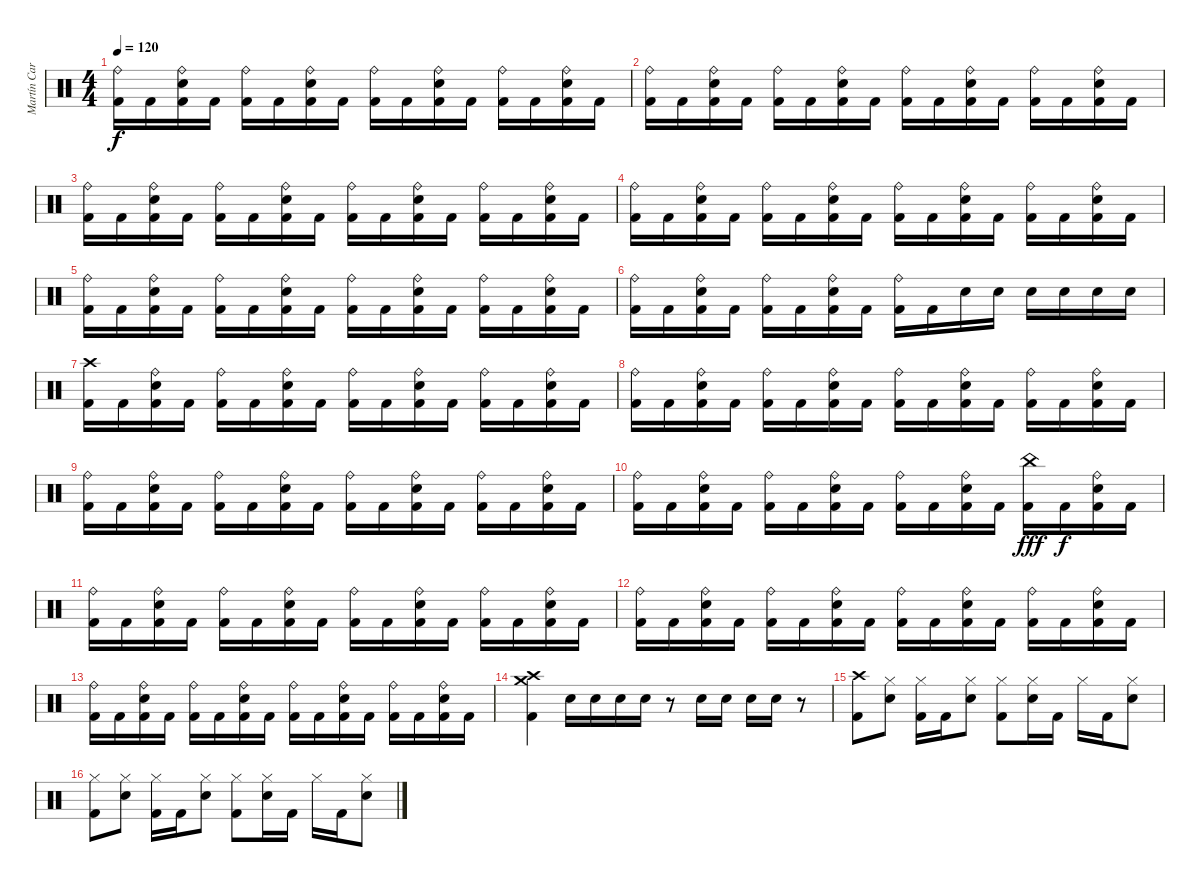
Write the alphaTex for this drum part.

\track ("Martín Carrizo" "Martín Car") {instrument percussion}
\staff {score}
\articulation defaults
\ts (4 4)
\tempo 120
\clef neutral
\ks c
("Ride (bell)" "Kick (hit) 2").16{dy f} "Kick (hit) 2".16 ("Ride (bell)" "Snare (hit) 2" "Kick (hit) 2").16 "Kick (hit) 2".16 ("Ride (bell)" "Kick (hit) 2").16 "Kick (hit) 2".16 ("Ride (bell)" "Snare (hit) 2" "Kick (hit) 2").16 "Kick (hit) 2".16 ("Ride (bell)" "Kick (hit) 2").16 "Kick (hit) 2".16 ("Ride (bell)" "Snare (hit) 2" "Kick (hit) 2").16 "Kick (hit) 2".16 ("Ride (bell)" "Kick (hit) 2").16 "Kick (hit) 2".16 ("Ride (bell)" "Snare (hit) 2" "Kick (hit) 2").16 "Kick (hit) 2".16 |
("Ride (bell)" "Kick (hit) 2").16 "Kick (hit) 2".16 ("Ride (bell)" "Snare (hit) 2" "Kick (hit) 2").16 "Kick (hit) 2".16 ("Ride (bell)" "Kick (hit) 2").16 "Kick (hit) 2".16 ("Ride (bell)" "Snare (hit) 2" "Kick (hit) 2").16 "Kick (hit) 2".16 ("Ride (bell)" "Kick (hit) 2").16 "Kick (hit) 2".16 ("Ride (bell)" "Snare (hit) 2" "Kick (hit) 2").16 "Kick (hit) 2".16 ("Ride (bell)" "Kick (hit) 2").16 "Kick (hit) 2".16 ("Ride (bell)" "Snare (hit) 2" "Kick (hit) 2").16 "Kick (hit) 2".16 |
("Ride (bell)" "Kick (hit) 2").16 "Kick (hit) 2".16 ("Ride (bell)" "Snare (hit) 2" "Kick (hit) 2").16 "Kick (hit) 2".16 ("Ride (bell)" "Kick (hit) 2").16 "Kick (hit) 2".16 ("Ride (bell)" "Snare (hit) 2" "Kick (hit) 2").16 "Kick (hit) 2".16 ("Ride (bell)" "Kick (hit) 2").16 "Kick (hit) 2".16 ("Ride (bell)" "Snare (hit) 2" "Kick (hit) 2").16 "Kick (hit) 2".16 ("Ride (bell)" "Kick (hit) 2").16 "Kick (hit) 2".16 ("Ride (bell)" "Snare (hit) 2" "Kick (hit) 2").16 "Kick (hit) 2".16 |
("Ride (bell)" "Kick (hit) 2").16 "Kick (hit) 2".16 ("Ride (bell)" "Snare (hit) 2" "Kick (hit) 2").16 "Kick (hit) 2".16 ("Ride (bell)" "Kick (hit) 2").16 "Kick (hit) 2".16 ("Ride (bell)" "Snare (hit) 2" "Kick (hit) 2").16 "Kick (hit) 2".16 ("Ride (bell)" "Kick (hit) 2").16 "Kick (hit) 2".16 ("Ride (bell)" "Snare (hit) 2" "Kick (hit) 2").16 "Kick (hit) 2".16 ("Ride (bell)" "Kick (hit) 2").16 "Kick (hit) 2".16 ("Ride (bell)" "Snare (hit) 2" "Kick (hit) 2").16 "Kick (hit) 2".16 |
("Ride (bell)" "Kick (hit) 2").16 "Kick (hit) 2".16 ("Ride (bell)" "Snare (hit) 2" "Kick (hit) 2").16 "Kick (hit) 2".16 ("Ride (bell)" "Kick (hit) 2").16 "Kick (hit) 2".16 ("Ride (bell)" "Snare (hit) 2" "Kick (hit) 2").16 "Kick (hit) 2".16 ("Ride (bell)" "Kick (hit) 2").16 "Kick (hit) 2".16 ("Ride (bell)" "Snare (hit) 2" "Kick (hit) 2").16 "Kick (hit) 2".16 ("Ride (bell)" "Kick (hit) 2").16 "Kick (hit) 2".16 ("Ride (bell)" "Snare (hit) 2" "Kick (hit) 2").16 "Kick (hit) 2".16 |
("Ride (bell)" "Kick (hit) 2").16 "Kick (hit) 2".16 ("Ride (bell)" "Snare (hit) 2" "Kick (hit) 2").16 "Kick (hit) 2".16 ("Ride (bell)" "Kick (hit) 2").16 "Kick (hit) 2".16 ("Ride (bell)" "Snare (hit) 2" "Kick (hit) 2").16 "Kick (hit) 2".16 ("Ride (bell)" "Kick (hit) 2").16 "Kick (hit) 2".16 "Snare (hit) 2".16 "Snare (hit) 2".16 "Snare (hit) 2".16 "Snare (hit) 2".16 "Snare (hit) 2".16 "Snare (hit) 2".16 |
("Crash high (hit)" "Kick (hit) 2").16 "Kick (hit) 2".16 ("Ride (bell)" "Snare (hit) 2" "Kick (hit) 2").16 "Kick (hit) 2".16 ("Ride (bell)" "Kick (hit) 2").16 "Kick (hit) 2".16 ("Ride (bell)" "Snare (hit) 2" "Kick (hit) 2").16 "Kick (hit) 2".16 ("Ride (bell)" "Kick (hit) 2").16 "Kick (hit) 2".16 ("Ride (bell)" "Snare (hit) 2" "Kick (hit) 2").16 "Kick (hit) 2".16 ("Ride (bell)" "Kick (hit) 2").16 "Kick (hit) 2".16 ("Ride (bell)" "Snare (hit) 2" "Kick (hit) 2").16 "Kick (hit) 2".16 |
("Ride (bell)" "Kick (hit) 2").16 "Kick (hit) 2".16 ("Ride (bell)" "Snare (hit) 2" "Kick (hit) 2").16 "Kick (hit) 2".16 ("Ride (bell)" "Kick (hit) 2").16 "Kick (hit) 2".16 ("Ride (bell)" "Snare (hit) 2" "Kick (hit) 2").16 "Kick (hit) 2".16 ("Ride (bell)" "Kick (hit) 2").16 "Kick (hit) 2".16 ("Ride (bell)" "Snare (hit) 2" "Kick (hit) 2").16 "Kick (hit) 2".16 ("Ride (bell)" "Kick (hit) 2").16 "Kick (hit) 2".16 ("Ride (bell)" "Snare (hit) 2" "Kick (hit) 2").16 "Kick (hit) 2".16 |
("Ride (bell)" "Kick (hit) 2").16 "Kick (hit) 2".16 ("Ride (bell)" "Snare (hit) 2" "Kick (hit) 2").16 "Kick (hit) 2".16 ("Ride (bell)" "Kick (hit) 2").16 "Kick (hit) 2".16 ("Ride (bell)" "Snare (hit) 2" "Kick (hit) 2").16 "Kick (hit) 2".16 ("Ride (bell)" "Kick (hit) 2").16 "Kick (hit) 2".16 ("Ride (bell)" "Snare (hit) 2" "Kick (hit) 2").16 "Kick (hit) 2".16 ("Ride (bell)" "Kick (hit) 2").16 "Kick (hit) 2".16 ("Ride (bell)" "Snare (hit) 2" "Kick (hit) 2").16 "Kick (hit) 2".16 |
("Ride (bell)" "Kick (hit) 2").16 "Kick (hit) 2".16 ("Ride (bell)" "Snare (hit) 2" "Kick (hit) 2").16 "Kick (hit) 2".16 ("Ride (bell)" "Kick (hit) 2").16 "Kick (hit) 2".16 ("Ride (bell)" "Snare (hit) 2" "Kick (hit) 2").16 "Kick (hit) 2".16 ("Ride (bell)" "Kick (hit) 2").16 "Kick (hit) 2".16 ("Ride (bell)" "Snare (hit) 2" "Kick (hit) 2").16 "Kick (hit) 2".16 ("China (hit)" "Kick (hit) 2").16{dy fff} "Kick (hit) 2".16{dy f} ("Ride (bell)" "Snare (hit) 2" "Kick (hit) 2").16 "Kick (hit) 2".16 |
("Ride (bell)" "Kick (hit) 2").16 "Kick (hit) 2".16 ("Ride (bell)" "Snare (hit) 2" "Kick (hit) 2").16 "Kick (hit) 2".16 ("Ride (bell)" "Kick (hit) 2").16 "Kick (hit) 2".16 ("Ride (bell)" "Snare (hit) 2" "Kick (hit) 2").16 "Kick (hit) 2".16 ("Ride (bell)" "Kick (hit) 2").16 "Kick (hit) 2".16 ("Ride (bell)" "Snare (hit) 2" "Kick (hit) 2").16 "Kick (hit) 2".16 ("Ride (bell)" "Kick (hit) 2").16 "Kick (hit) 2".16 ("Ride (bell)" "Snare (hit) 2" "Kick (hit) 2").16 "Kick (hit) 2".16 |
("Ride (bell)" "Kick (hit) 2").16 "Kick (hit) 2".16 ("Ride (bell)" "Snare (hit) 2" "Kick (hit) 2").16 "Kick (hit) 2".16 ("Ride (bell)" "Kick (hit) 2").16 "Kick (hit) 2".16 ("Ride (bell)" "Snare (hit) 2" "Kick (hit) 2").16 "Kick (hit) 2".16 ("Ride (bell)" "Kick (hit) 2").16 "Kick (hit) 2".16 ("Ride (bell)" "Snare (hit) 2" "Kick (hit) 2").16 "Kick (hit) 2".16 ("Ride (bell)" "Kick (hit) 2").16 "Kick (hit) 2".16 ("Ride (bell)" "Snare (hit) 2" "Kick (hit) 2").16 "Kick (hit) 2".16 |
("Ride (bell)" "Kick (hit) 2").16 "Kick (hit) 2".16 ("Ride (bell)" "Snare (hit) 2" "Kick (hit) 2").16 "Kick (hit) 2".16 ("Ride (bell)" "Kick (hit) 2").16 "Kick (hit) 2".16 ("Ride (bell)" "Snare (hit) 2" "Kick (hit) 2").16 "Kick (hit) 2".16 ("Ride (bell)" "Kick (hit) 2").16 "Kick (hit) 2".16 ("Ride (bell)" "Snare (hit) 2" "Kick (hit) 2").16 "Kick (hit) 2".16 ("Ride (bell)" "Kick (hit) 2").16 "Kick (hit) 2".16 ("Ride (bell)" "Snare (hit) 2" "Kick (hit) 2").16 "Kick (hit) 2".16 |
("Crash medium (hit)" "Crash high (hit)" "Kick (hit) 2").4 "Snare (hit) 2".16 "Snare (hit) 2".16 "Snare (hit) 2".16 "Snare (hit) 2".16 r.8 "Snare (hit) 2".16 "Snare (hit) 2".16 "Snare (hit) 2".16 "Snare (hit) 2".16 r.8 |
("Crash high (hit)" "Kick (hit) 2").8 ("Hi-Hat (closed)" "Snare (hit) 2").8 ("Hi-Hat (closed)" "Kick (hit) 2").16 "Kick (hit) 2".16 ("Hi-Hat (closed)" "Snare (hit) 2").8 ("Hi-Hat (closed)" "Kick (hit) 2").8 ("Hi-Hat (closed)" "Snare (hit) 2").16 "Kick (hit) 2".16 "Hi-Hat (closed)".16 "Kick (hit) 2".16 ("Hi-Hat (closed)" "Snare (hit) 2").8 |
("Hi-Hat (closed)" "Kick (hit) 2").8 ("Hi-Hat (closed)" "Snare (hit) 2").8 ("Hi-Hat (closed)" "Kick (hit) 2").16 "Kick (hit) 2".16 ("Hi-Hat (closed)" "Snare (hit) 2").8 ("Hi-Hat (closed)" "Kick (hit) 2").8 ("Hi-Hat (closed)" "Snare (hit) 2").16 "Kick (hit) 2".16 "Hi-Hat (closed)".16 "Kick (hit) 2".16 ("Hi-Hat (closed)" "Snare (hit) 2").8
